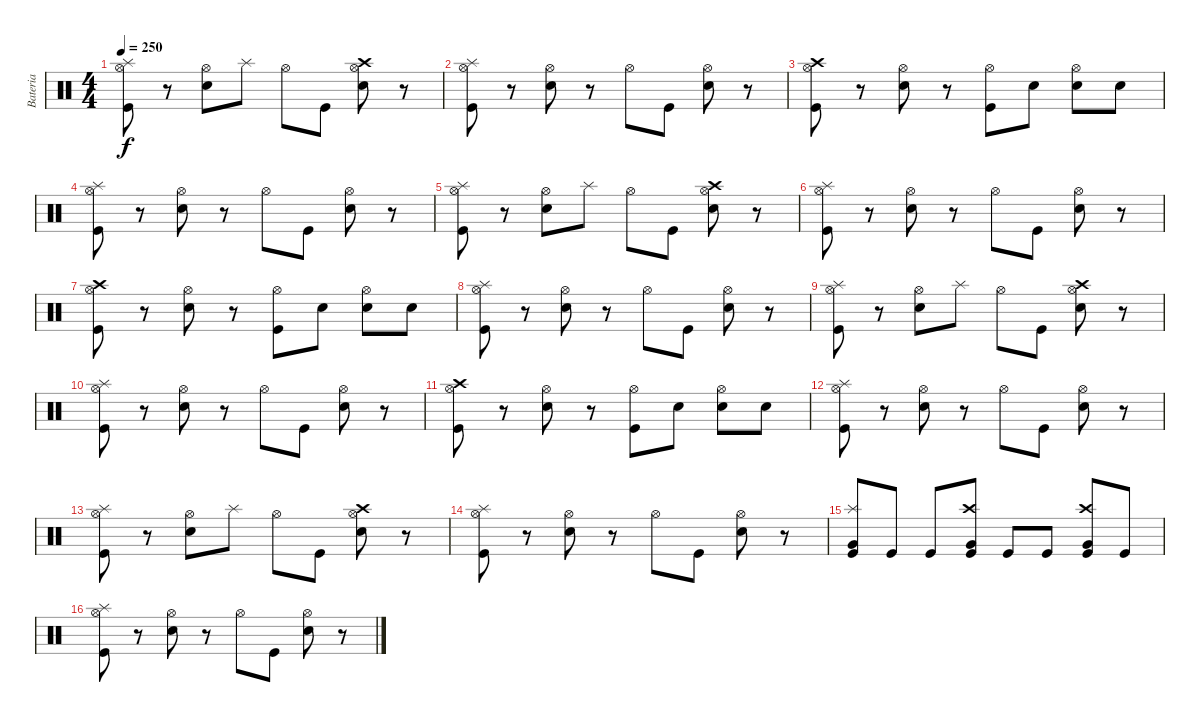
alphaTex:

\track ("Bateria" "Bateria") {instrument percussion}
\staff {score}
\articulation defaults
\ts (4 4)
\tempo 250
\clef neutral
\ks c
("Kick (hit)" "Hi-Hat (open)" "Splash (hit)").8{dy f} r.8 ("Electric Snare (hit)" "Hi-Hat (open)").8 "Splash (hit)".8 "Hi-Hat (open)".8 "Kick (hit)".8 ("Electric Snare (hit)" "Hi-Hat (open)" "Crash high (hit)").8 r.8 |
("Kick (hit)" "Hi-Hat (open)" "Splash (hit)").8 r.8 ("Electric Snare (hit)" "Hi-Hat (open)").8 r.8 "Hi-Hat (open)".8 "Kick (hit)".8 ("Electric Snare (hit)" "Hi-Hat (open)").8 r.8 |
("Kick (hit)" "Hi-Hat (open)" "Crash high (hit)").8 r.8 ("Electric Snare (hit)" "Hi-Hat (open)").8 r.8 ("Kick (hit)" "Hi-Hat (open)").8 "Electric Snare (hit)".8 ("Electric Snare (hit)" "Hi-Hat (open)").8 "Electric Snare (hit)".8 |
("Kick (hit)" "Hi-Hat (open)" "Splash (hit)").8 r.8 ("Electric Snare (hit)" "Hi-Hat (open)").8 r.8 "Hi-Hat (open)".8 "Kick (hit)".8 ("Electric Snare (hit)" "Hi-Hat (open)").8 r.8 |
("Kick (hit)" "Hi-Hat (open)" "Splash (hit)").8 r.8 ("Electric Snare (hit)" "Hi-Hat (open)").8 "Splash (hit)".8 "Hi-Hat (open)".8 "Kick (hit)".8 ("Electric Snare (hit)" "Hi-Hat (open)" "Crash high (hit)").8 r.8 |
("Kick (hit)" "Hi-Hat (open)" "Splash (hit)").8 r.8 ("Electric Snare (hit)" "Hi-Hat (open)").8 r.8 "Hi-Hat (open)".8 "Kick (hit)".8 ("Electric Snare (hit)" "Hi-Hat (open)").8 r.8 |
("Kick (hit)" "Hi-Hat (open)" "Crash high (hit)").8 r.8 ("Electric Snare (hit)" "Hi-Hat (open)").8 r.8 ("Kick (hit)" "Hi-Hat (open)").8 "Electric Snare (hit)".8 ("Electric Snare (hit)" "Hi-Hat (open)").8 "Electric Snare (hit)".8 |
("Kick (hit)" "Hi-Hat (open)" "Splash (hit)").8 r.8 ("Electric Snare (hit)" "Hi-Hat (open)").8 r.8 "Hi-Hat (open)".8 "Kick (hit)".8 ("Electric Snare (hit)" "Hi-Hat (open)").8 r.8 |
("Kick (hit)" "Hi-Hat (open)" "Splash (hit)").8 r.8 ("Electric Snare (hit)" "Hi-Hat (open)").8 "Splash (hit)".8 "Hi-Hat (open)".8 "Kick (hit)".8 ("Electric Snare (hit)" "Hi-Hat (open)" "Crash high (hit)").8 r.8 |
("Kick (hit)" "Hi-Hat (open)" "Splash (hit)").8 r.8 ("Electric Snare (hit)" "Hi-Hat (open)").8 r.8 "Hi-Hat (open)".8 "Kick (hit)".8 ("Electric Snare (hit)" "Hi-Hat (open)").8 r.8 |
("Kick (hit)" "Hi-Hat (open)" "Crash high (hit)").8 r.8 ("Electric Snare (hit)" "Hi-Hat (open)").8 r.8 ("Kick (hit)" "Hi-Hat (open)").8 "Electric Snare (hit)".8 ("Electric Snare (hit)" "Hi-Hat (open)").8 "Electric Snare (hit)".8 |
("Kick (hit)" "Hi-Hat (open)" "Splash (hit)").8 r.8 ("Electric Snare (hit)" "Hi-Hat (open)").8 r.8 "Hi-Hat (open)".8 "Kick (hit)".8 ("Electric Snare (hit)" "Hi-Hat (open)").8 r.8 |
("Kick (hit)" "Hi-Hat (open)" "Splash (hit)").8 r.8 ("Electric Snare (hit)" "Hi-Hat (open)").8 "Splash (hit)".8 "Hi-Hat (open)".8 "Kick (hit)".8 ("Electric Snare (hit)" "Hi-Hat (open)" "Crash high (hit)").8 r.8 |
("Kick (hit)" "Hi-Hat (open)" "Splash (hit)").8 r.8 ("Electric Snare (hit)" "Hi-Hat (open)").8 r.8 "Hi-Hat (open)".8 "Kick (hit)".8 ("Electric Snare (hit)" "Hi-Hat (open)").8 r.8 |
("Kick (hit)" "Very Low Tom (hit)" "Splash (hit)").8 "Kick (hit)".8 "Kick (hit)".8 ("Kick (hit)" "Very Low Tom (hit)" "Crash high (hit)").8 "Kick (hit)".8 "Kick (hit)".8 ("Kick (hit)" "Very Low Tom (hit)" "Crash high (hit)").8 "Kick (hit)".8 |
("Kick (hit)" "Hi-Hat (open)" "Splash (hit)").8 r.8 ("Electric Snare (hit)" "Hi-Hat (open)").8 r.8 "Hi-Hat (open)".8 "Kick (hit)".8 ("Electric Snare (hit)" "Hi-Hat (open)").8 r.8
